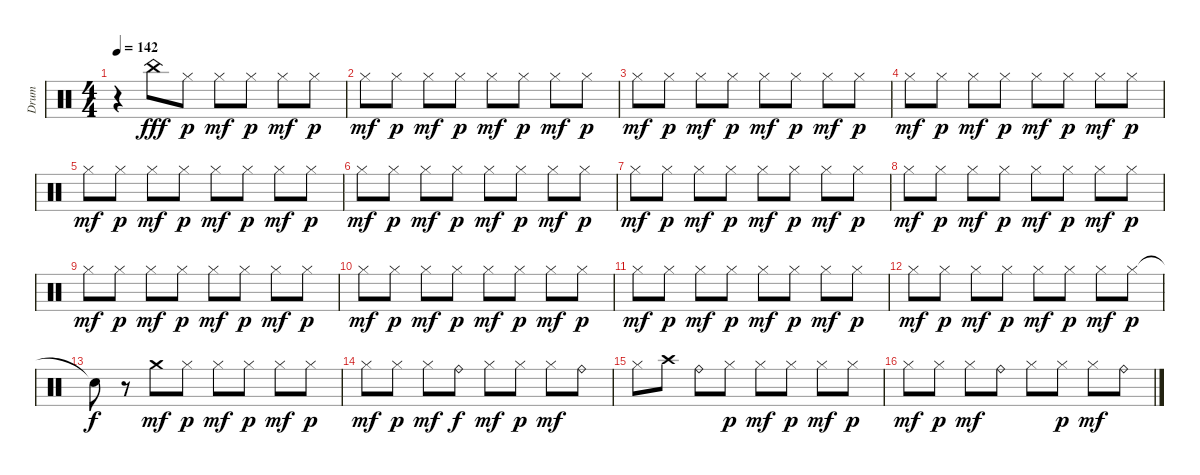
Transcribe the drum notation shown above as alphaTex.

\track ("Drum" "Drum") {instrument percussion}
\staff {score}
\articulation defaults
\ts (4 4)
\tempo 142
\clef neutral
\ks c
r.4{dy f} "China (hit)".8{dy fff} "Hi-Hat (closed)".8{dy p} "Hi-Hat (closed)".8{dy mf} "Hi-Hat (closed)".8{dy p} "Hi-Hat (closed)".8{dy mf} "Hi-Hat (closed)".8{dy p} |
"Hi-Hat (closed)".8{dy mf} "Hi-Hat (closed)".8{dy p} "Hi-Hat (closed)".8{dy mf} "Hi-Hat (closed)".8{dy p} "Hi-Hat (closed)".8{dy mf} "Hi-Hat (closed)".8{dy p} "Hi-Hat (closed)".8{dy mf} "Hi-Hat (closed)".8{dy p} |
"Hi-Hat (closed)".8{dy mf} "Hi-Hat (closed)".8{dy p} "Hi-Hat (closed)".8{dy mf} "Hi-Hat (closed)".8{dy p} "Hi-Hat (closed)".8{dy mf} "Hi-Hat (closed)".8{dy p} "Hi-Hat (closed)".8{dy mf} "Hi-Hat (closed)".8{dy p} |
"Hi-Hat (closed)".8{dy mf} "Hi-Hat (closed)".8{dy p} "Hi-Hat (closed)".8{dy mf} "Hi-Hat (closed)".8{dy p} "Hi-Hat (closed)".8{dy mf} "Hi-Hat (closed)".8{dy p} "Hi-Hat (closed)".8{dy mf} "Hi-Hat (closed)".8{dy p} |
"Hi-Hat (closed)".8{dy mf} "Hi-Hat (closed)".8{dy p} "Hi-Hat (closed)".8{dy mf} "Hi-Hat (closed)".8{dy p} "Hi-Hat (closed)".8{dy mf} "Hi-Hat (closed)".8{dy p} "Hi-Hat (closed)".8{dy mf} "Hi-Hat (closed)".8{dy p} |
"Hi-Hat (closed)".8{dy mf} "Hi-Hat (closed)".8{dy p} "Hi-Hat (closed)".8{dy mf} "Hi-Hat (closed)".8{dy p} "Hi-Hat (closed)".8{dy mf} "Hi-Hat (closed)".8{dy p} "Hi-Hat (closed)".8{dy mf} "Hi-Hat (closed)".8{dy p} |
"Hi-Hat (closed)".8{dy mf} "Hi-Hat (closed)".8{dy p} "Hi-Hat (closed)".8{dy mf} "Hi-Hat (closed)".8{dy p} "Hi-Hat (closed)".8{dy mf} "Hi-Hat (closed)".8{dy p} "Hi-Hat (closed)".8{dy mf} "Hi-Hat (closed)".8{dy p} |
"Hi-Hat (closed)".8{dy mf} "Hi-Hat (closed)".8{dy p} "Hi-Hat (closed)".8{dy mf} "Hi-Hat (closed)".8{dy p} "Hi-Hat (closed)".8{dy mf} "Hi-Hat (closed)".8{dy p} "Hi-Hat (closed)".8{dy mf} "Hi-Hat (closed)".8{dy p} |
"Hi-Hat (closed)".8{dy mf} "Hi-Hat (closed)".8{dy p} "Hi-Hat (closed)".8{dy mf} "Hi-Hat (closed)".8{dy p} "Hi-Hat (closed)".8{dy mf} "Hi-Hat (closed)".8{dy p} "Hi-Hat (closed)".8{dy mf} "Hi-Hat (closed)".8{dy p} |
"Hi-Hat (closed)".8{dy mf} "Hi-Hat (closed)".8{dy p} "Hi-Hat (closed)".8{dy mf} "Hi-Hat (closed)".8{dy p} "Hi-Hat (closed)".8{dy mf} "Hi-Hat (closed)".8{dy p} "Hi-Hat (closed)".8{dy mf} "Hi-Hat (closed)".8{dy p} |
"Hi-Hat (closed)".8{dy mf} "Hi-Hat (closed)".8{dy p} "Hi-Hat (closed)".8{dy mf} "Hi-Hat (closed)".8{dy p} "Hi-Hat (closed)".8{dy mf} "Hi-Hat (closed)".8{dy p} "Hi-Hat (closed)".8{dy mf} "Hi-Hat (closed)".8{dy p} |
"Hi-Hat (closed)".8{dy mf} "Hi-Hat (closed)".8{dy p} "Hi-Hat (closed)".8{dy mf} "Hi-Hat (closed)".8{dy p} "Hi-Hat (closed)".8{dy mf} "Hi-Hat (closed)".8{dy p} "Hi-Hat (closed)".8{dy mf} "Hi-Hat (closed)".8{dy p} |
"Snare (hit)"{t}.8{dy f} r.8 "Crash medium (hit)".8{dy mf} "Hi-Hat (closed)".8{dy p} "Hi-Hat (closed)".8{dy mf} "Hi-Hat (closed)".8{dy p} "Hi-Hat (closed)".8{dy mf} "Hi-Hat (closed)".8{dy p} |
"Hi-Hat (closed)".8{dy mf} "Hi-Hat (closed)".8{dy p} "Hi-Hat (closed)".8{dy mf} "Ride (bell)".8{dy f} "Hi-Hat (closed)".8{dy mf} "Hi-Hat (closed)".8{dy p} "Hi-Hat (closed)".8{dy mf} "Ride (bell)".8 |
"Hi-Hat (closed)".8 "Crash high (hit)".8 "Ride (bell)".8 "Hi-Hat (closed)".8{dy p} "Hi-Hat (closed)".8{dy mf} "Hi-Hat (closed)".8{dy p} "Hi-Hat (closed)".8{dy mf} "Hi-Hat (closed)".8{dy p} |
"Hi-Hat (closed)".8{dy mf} "Hi-Hat (closed)".8{dy p} "Hi-Hat (closed)".8{dy mf} "Ride (bell)".8 "Hi-Hat (closed)".8 "Hi-Hat (closed)".8{dy p} "Hi-Hat (closed)".8{dy mf} "Ride (bell)".8
